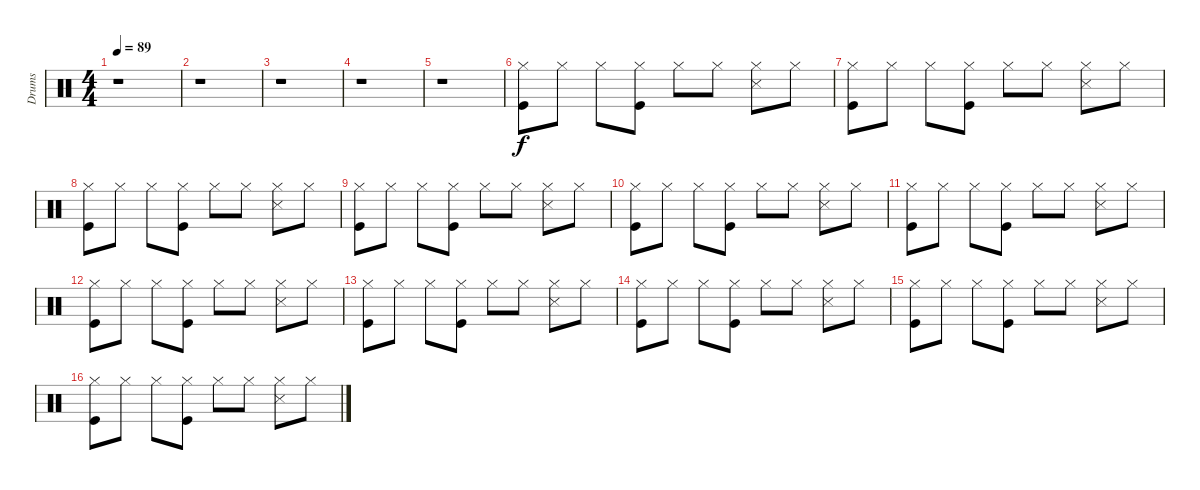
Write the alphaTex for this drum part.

\track ("Drums" "Drums") {instrument percussion}
\staff {score}
\articulation defaults
\ts (4 4)
\tempo 89
\clef neutral
\ks c
r.1{dy f} |
r.1 |
r.1 |
r.1 |
r.1 |
("Hi-Hat (closed)" "Kick (hit)").8 "Hi-Hat (closed)".8 "Hi-Hat (closed)".8 ("Hi-Hat (closed)" "Kick (hit)").8 "Hi-Hat (closed)".8 "Hi-Hat (closed)".8 ("Hi-Hat (closed)" "Snare (side stick) 3").8 "Hi-Hat (closed)".8 |
("Hi-Hat (closed)" "Kick (hit)").8 "Hi-Hat (closed)".8 "Hi-Hat (closed)".8 ("Hi-Hat (closed)" "Kick (hit)").8 "Hi-Hat (closed)".8 "Hi-Hat (closed)".8 ("Hi-Hat (closed)" "Snare (side stick) 3").8 "Hi-Hat (closed)".8 |
("Hi-Hat (closed)" "Kick (hit)").8 "Hi-Hat (closed)".8 "Hi-Hat (closed)".8 ("Hi-Hat (closed)" "Kick (hit)").8 "Hi-Hat (closed)".8 "Hi-Hat (closed)".8 ("Hi-Hat (closed)" "Snare (side stick) 3").8 "Hi-Hat (closed)".8 |
("Hi-Hat (closed)" "Kick (hit)").8 "Hi-Hat (closed)".8 "Hi-Hat (closed)".8 ("Hi-Hat (closed)" "Kick (hit)").8 "Hi-Hat (closed)".8 "Hi-Hat (closed)".8 ("Hi-Hat (closed)" "Snare (side stick) 3").8 "Hi-Hat (closed)".8 |
("Hi-Hat (closed)" "Kick (hit)").8 "Hi-Hat (closed)".8 "Hi-Hat (closed)".8 ("Hi-Hat (closed)" "Kick (hit)").8 "Hi-Hat (closed)".8 "Hi-Hat (closed)".8 ("Hi-Hat (closed)" "Snare (side stick) 3").8 "Hi-Hat (closed)".8 |
("Hi-Hat (closed)" "Kick (hit)").8 "Hi-Hat (closed)".8 "Hi-Hat (closed)".8 ("Hi-Hat (closed)" "Kick (hit)").8 "Hi-Hat (closed)".8 "Hi-Hat (closed)".8 ("Hi-Hat (closed)" "Snare (side stick) 3").8 "Hi-Hat (closed)".8 |
("Hi-Hat (closed)" "Kick (hit)").8 "Hi-Hat (closed)".8 "Hi-Hat (closed)".8 ("Hi-Hat (closed)" "Kick (hit)").8 "Hi-Hat (closed)".8 "Hi-Hat (closed)".8 ("Hi-Hat (closed)" "Snare (side stick) 3").8 "Hi-Hat (closed)".8 |
("Hi-Hat (closed)" "Kick (hit)").8 "Hi-Hat (closed)".8 "Hi-Hat (closed)".8 ("Hi-Hat (closed)" "Kick (hit)").8 "Hi-Hat (closed)".8 "Hi-Hat (closed)".8 ("Hi-Hat (closed)" "Snare (side stick) 3").8 "Hi-Hat (closed)".8 |
("Hi-Hat (closed)" "Kick (hit)").8 "Hi-Hat (closed)".8 "Hi-Hat (closed)".8 ("Hi-Hat (closed)" "Kick (hit)").8 "Hi-Hat (closed)".8 "Hi-Hat (closed)".8 ("Hi-Hat (closed)" "Snare (side stick) 3").8 "Hi-Hat (closed)".8 |
("Hi-Hat (closed)" "Kick (hit)").8 "Hi-Hat (closed)".8 "Hi-Hat (closed)".8 ("Hi-Hat (closed)" "Kick (hit)").8 "Hi-Hat (closed)".8 "Hi-Hat (closed)".8 ("Hi-Hat (closed)" "Snare (side stick) 3").8 "Hi-Hat (closed)".8 |
("Hi-Hat (closed)" "Kick (hit)").8 "Hi-Hat (closed)".8 "Hi-Hat (closed)".8 ("Hi-Hat (closed)" "Kick (hit)").8 "Hi-Hat (closed)".8 "Hi-Hat (closed)".8 ("Hi-Hat (closed)" "Snare (side stick) 3").8 "Hi-Hat (closed)".8
